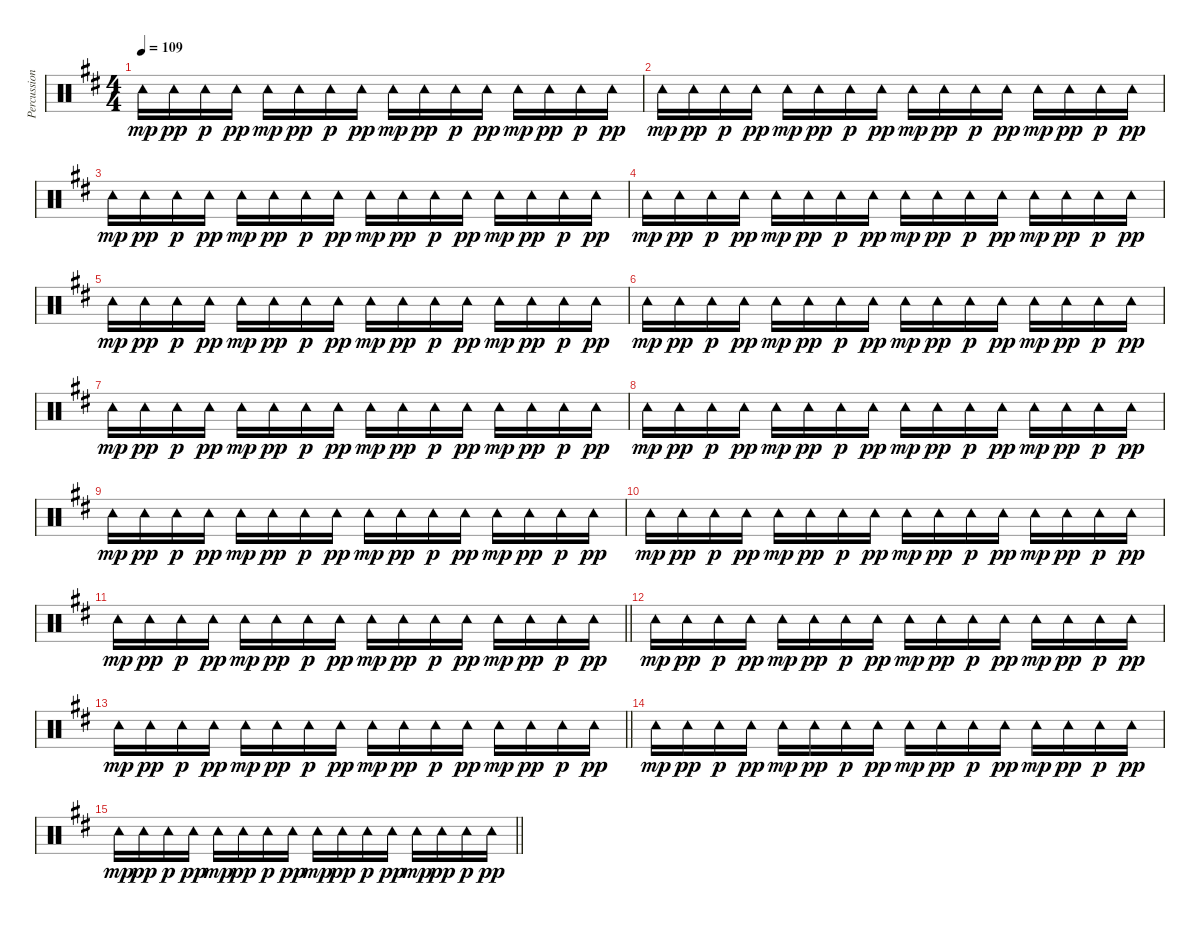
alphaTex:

\track ("Percussion (Rick McMurray)" "Percussion") {instrument percussion}
\staff {score}
\articulation defaults
\ts (4 4)
\tempo 109
\clef neutral
\ks d "Tambourine (hit)".16{dy mp} "Tambourine (hit)".16{dy pp} "Tambourine (hit)".16{dy p} "Tambourine (hit)".16{dy pp} "Tambourine (hit)".16{dy mp} "Tambourine (hit)".16{dy pp} "Tambourine (hit)".16{dy p} "Tambourine (hit)".16{dy pp} "Tambourine (hit)".16{dy mp} "Tambourine (hit)".16{dy pp} "Tambourine (hit)".16{dy p} "Tambourine (hit)".16{dy pp} "Tambourine (hit)".16{dy mp} "Tambourine (hit)".16{dy pp} "Tambourine (hit)".16{dy p} "Tambourine (hit)".16{dy pp}
|
"Tambourine (hit)".16{dy mp} "Tambourine (hit)".16{dy pp} "Tambourine (hit)".16{dy p} "Tambourine (hit)".16{dy pp} "Tambourine (hit)".16{dy mp} "Tambourine (hit)".16{dy pp} "Tambourine (hit)".16{dy p} "Tambourine (hit)".16{dy pp} "Tambourine (hit)".16{dy mp} "Tambourine (hit)".16{dy pp} "Tambourine (hit)".16{dy p} "Tambourine (hit)".16{dy pp} "Tambourine (hit)".16{dy mp} "Tambourine (hit)".16{dy pp} "Tambourine (hit)".16{dy p} "Tambourine (hit)".16{dy pp} |
"Tambourine (hit)".16{dy mp} "Tambourine (hit)".16{dy pp} "Tambourine (hit)".16{dy p} "Tambourine (hit)".16{dy pp} "Tambourine (hit)".16{dy mp} "Tambourine (hit)".16{dy pp} "Tambourine (hit)".16{dy p} "Tambourine (hit)".16{dy pp} "Tambourine (hit)".16{dy mp} "Tambourine (hit)".16{dy pp} "Tambourine (hit)".16{dy p} "Tambourine (hit)".16{dy pp} "Tambourine (hit)".16{dy mp} "Tambourine (hit)".16{dy pp} "Tambourine (hit)".16{dy p} "Tambourine (hit)".16{dy pp} |
"Tambourine (hit)".16{dy mp} "Tambourine (hit)".16{dy pp} "Tambourine (hit)".16{dy p} "Tambourine (hit)".16{dy pp} "Tambourine (hit)".16{dy mp} "Tambourine (hit)".16{dy pp} "Tambourine (hit)".16{dy p} "Tambourine (hit)".16{dy pp} "Tambourine (hit)".16{dy mp} "Tambourine (hit)".16{dy pp} "Tambourine (hit)".16{dy p} "Tambourine (hit)".16{dy pp} "Tambourine (hit)".16{dy mp} "Tambourine (hit)".16{dy pp} "Tambourine (hit)".16{dy p} "Tambourine (hit)".16{dy pp} |
"Tambourine (hit)".16{dy mp} "Tambourine (hit)".16{dy pp} "Tambourine (hit)".16{dy p} "Tambourine (hit)".16{dy pp} "Tambourine (hit)".16{dy mp} "Tambourine (hit)".16{dy pp} "Tambourine (hit)".16{dy p} "Tambourine (hit)".16{dy pp} "Tambourine (hit)".16{dy mp} "Tambourine (hit)".16{dy pp} "Tambourine (hit)".16{dy p} "Tambourine (hit)".16{dy pp} "Tambourine (hit)".16{dy mp} "Tambourine (hit)".16{dy pp} "Tambourine (hit)".16{dy p} "Tambourine (hit)".16{dy pp} |
"Tambourine (hit)".16{dy mp} "Tambourine (hit)".16{dy pp} "Tambourine (hit)".16{dy p} "Tambourine (hit)".16{dy pp} "Tambourine (hit)".16{dy mp} "Tambourine (hit)".16{dy pp} "Tambourine (hit)".16{dy p} "Tambourine (hit)".16{dy pp} "Tambourine (hit)".16{dy mp} "Tambourine (hit)".16{dy pp} "Tambourine (hit)".16{dy p} "Tambourine (hit)".16{dy pp} "Tambourine (hit)".16{dy mp} "Tambourine (hit)".16{dy pp} "Tambourine (hit)".16{dy p} "Tambourine (hit)".16{dy pp} |
"Tambourine (hit)".16{dy mp} "Tambourine (hit)".16{dy pp} "Tambourine (hit)".16{dy p} "Tambourine (hit)".16{dy pp} "Tambourine (hit)".16{dy mp} "Tambourine (hit)".16{dy pp} "Tambourine (hit)".16{dy p} "Tambourine (hit)".16{dy pp} "Tambourine (hit)".16{dy mp} "Tambourine (hit)".16{dy pp} "Tambourine (hit)".16{dy p} "Tambourine (hit)".16{dy pp} "Tambourine (hit)".16{dy mp} "Tambourine (hit)".16{dy pp} "Tambourine (hit)".16{dy p} "Tambourine (hit)".16{dy pp} |
"Tambourine (hit)".16{dy mp} "Tambourine (hit)".16{dy pp} "Tambourine (hit)".16{dy p} "Tambourine (hit)".16{dy pp} "Tambourine (hit)".16{dy mp} "Tambourine (hit)".16{dy pp} "Tambourine (hit)".16{dy p} "Tambourine (hit)".16{dy pp} "Tambourine (hit)".16{dy mp} "Tambourine (hit)".16{dy pp} "Tambourine (hit)".16{dy p} "Tambourine (hit)".16{dy pp} "Tambourine (hit)".16{dy mp} "Tambourine (hit)".16{dy pp} "Tambourine (hit)".16{dy p} "Tambourine (hit)".16{dy pp} |
"Tambourine (hit)".16{dy mp} "Tambourine (hit)".16{dy pp} "Tambourine (hit)".16{dy p} "Tambourine (hit)".16{dy pp} "Tambourine (hit)".16{dy mp} "Tambourine (hit)".16{dy pp} "Tambourine (hit)".16{dy p} "Tambourine (hit)".16{dy pp} "Tambourine (hit)".16{dy mp} "Tambourine (hit)".16{dy pp} "Tambourine (hit)".16{dy p} "Tambourine (hit)".16{dy pp} "Tambourine (hit)".16{dy mp} "Tambourine (hit)".16{dy pp} "Tambourine (hit)".16{dy p} "Tambourine (hit)".16{dy pp} |
"Tambourine (hit)".16{dy mp} "Tambourine (hit)".16{dy pp} "Tambourine (hit)".16{dy p} "Tambourine (hit)".16{dy pp} "Tambourine (hit)".16{dy mp} "Tambourine (hit)".16{dy pp} "Tambourine (hit)".16{dy p} "Tambourine (hit)".16{dy pp} "Tambourine (hit)".16{dy mp} "Tambourine (hit)".16{dy pp} "Tambourine (hit)".16{dy p} "Tambourine (hit)".16{dy pp} "Tambourine (hit)".16{dy mp} "Tambourine (hit)".16{dy pp} "Tambourine (hit)".16{dy p} "Tambourine (hit)".16{dy pp} |
\barLineRight lightlight "Tambourine (hit)".16{dy mp} "Tambourine (hit)".16{dy pp} "Tambourine (hit)".16{dy p} "Tambourine (hit)".16{dy pp} "Tambourine (hit)".16{dy mp} "Tambourine (hit)".16{dy pp} "Tambourine (hit)".16{dy p} "Tambourine (hit)".16{dy pp} "Tambourine (hit)".16{dy mp} "Tambourine (hit)".16{dy pp} "Tambourine (hit)".16{dy p} "Tambourine (hit)".16{dy pp} "Tambourine (hit)".16{dy mp} "Tambourine (hit)".16{dy pp} "Tambourine (hit)".16{dy p} "Tambourine (hit)".16{dy pp}
|
"Tambourine (hit)".16{dy mp} "Tambourine (hit)".16{dy pp} "Tambourine (hit)".16{dy p} "Tambourine (hit)".16{dy pp} "Tambourine (hit)".16{dy mp} "Tambourine (hit)".16{dy pp} "Tambourine (hit)".16{dy p} "Tambourine (hit)".16{dy pp} "Tambourine (hit)".16{dy mp} "Tambourine (hit)".16{dy pp} "Tambourine (hit)".16{dy p} "Tambourine (hit)".16{dy pp} "Tambourine (hit)".16{dy mp} "Tambourine (hit)".16{dy pp} "Tambourine (hit)".16{dy p} "Tambourine (hit)".16{dy pp} |
\barLineRight lightlight "Tambourine (hit)".16{dy mp} "Tambourine (hit)".16{dy pp} "Tambourine (hit)".16{dy p} "Tambourine (hit)".16{dy pp} "Tambourine (hit)".16{dy mp} "Tambourine (hit)".16{dy pp} "Tambourine (hit)".16{dy p} "Tambourine (hit)".16{dy pp} "Tambourine (hit)".16{dy mp} "Tambourine (hit)".16{dy pp} "Tambourine (hit)".16{dy p} "Tambourine (hit)".16{dy pp} "Tambourine (hit)".16{dy mp} "Tambourine (hit)".16{dy pp} "Tambourine (hit)".16{dy p} "Tambourine (hit)".16{dy pp}
|
"Tambourine (hit)".16{dy mp} "Tambourine (hit)".16{dy pp} "Tambourine (hit)".16{dy p} "Tambourine (hit)".16{dy pp} "Tambourine (hit)".16{dy mp} "Tambourine (hit)".16{dy pp} "Tambourine (hit)".16{dy p} "Tambourine (hit)".16{dy pp} "Tambourine (hit)".16{dy mp} "Tambourine (hit)".16{dy pp} "Tambourine (hit)".16{dy p} "Tambourine (hit)".16{dy pp} "Tambourine (hit)".16{dy mp} "Tambourine (hit)".16{dy pp} "Tambourine (hit)".16{dy p} "Tambourine (hit)".16{dy pp} |
\barLineRight lightlight "Tambourine (hit)".16{dy mp} "Tambourine (hit)".16{dy pp} "Tambourine (hit)".16{dy p} "Tambourine (hit)".16{dy pp} "Tambourine (hit)".16{dy mp} "Tambourine (hit)".16{dy pp} "Tambourine (hit)".16{dy p} "Tambourine (hit)".16{dy pp} "Tambourine (hit)".16{dy mp} "Tambourine (hit)".16{dy pp} "Tambourine (hit)".16{dy p} "Tambourine (hit)".16{dy pp} "Tambourine (hit)".16{dy mp} "Tambourine (hit)".16{dy pp} "Tambourine (hit)".16{dy p} "Tambourine (hit)".16{dy pp}
